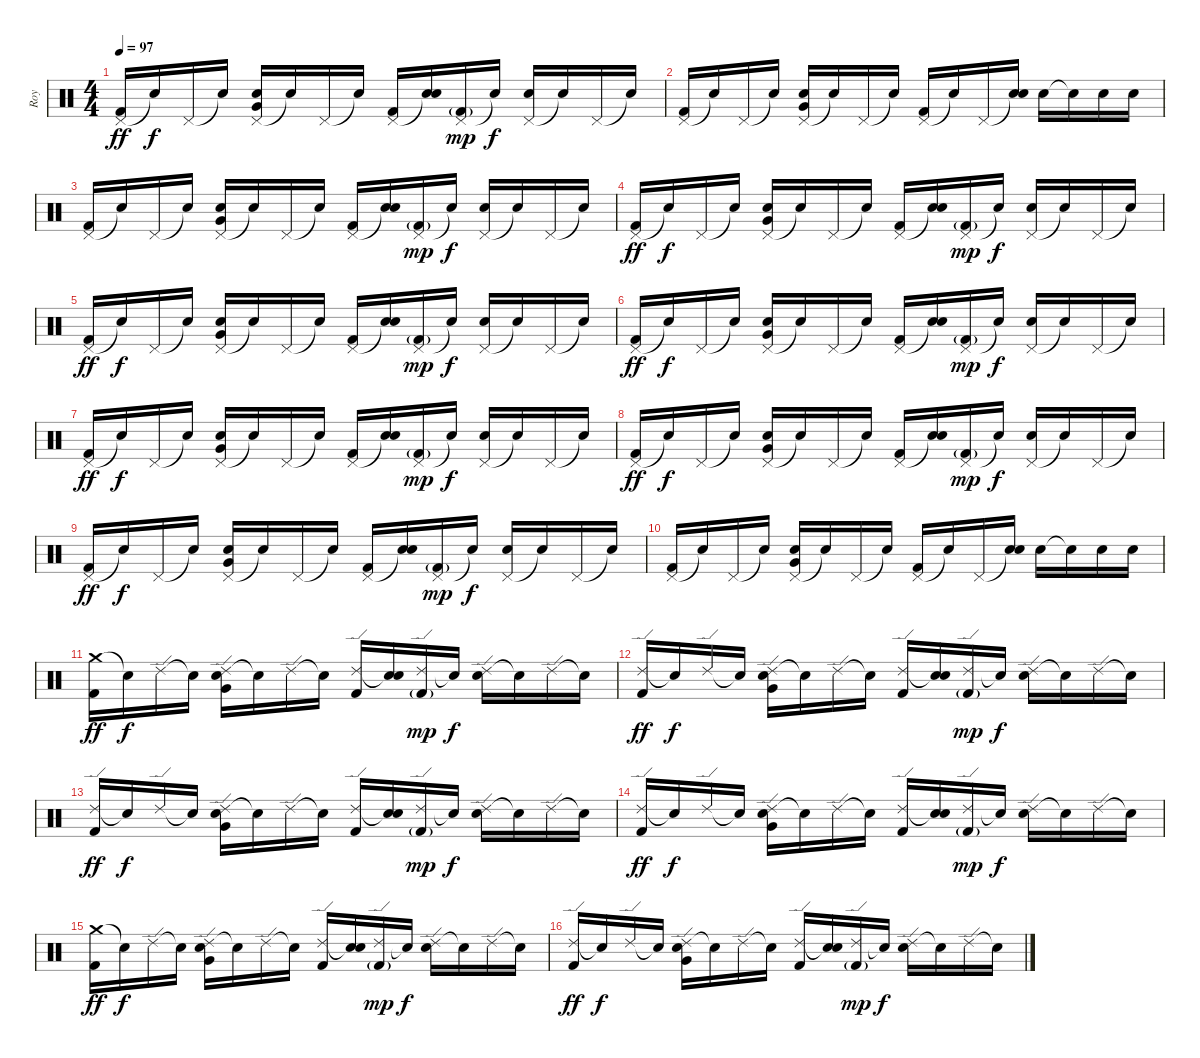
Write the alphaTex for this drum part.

\track ("Roy" "Roy") {instrument percussion}
\staff {score}
\articulation defaults
\ts (4 4)
\tempo 97
\clef neutral
\ks c
("Pedal Hi-Hat (hit)" "Kick (hit) 2").16{dy ff} "Snare (hit)"{t}.16{dy f} "Pedal Hi-Hat (hit)".16 "Snare (hit)"{t}.16 ("Pedal Hi-Hat (hit)" "Electric Snare (hit)" "Very Low Tom (hit)").16 "Snare (hit)"{t}.16 "Pedal Hi-Hat (hit)".16 "Snare (hit)"{t}.16 ("Pedal Hi-Hat (hit)" "Kick (hit) 2").16 ("Snare (hit)"{t} "Electric Snare (hit)").16 ("Pedal Hi-Hat (hit)" "Kick (hit) 2"{g}).16{dy mp} "Snare (hit)"{t}.16{dy f} ("Pedal Hi-Hat (hit)" "Electric Snare (hit)").16 "Snare (hit)"{t}.16 "Pedal Hi-Hat (hit)".16 "Snare (hit)"{t}.16 |
("Pedal Hi-Hat (hit)" "Kick (hit) 2").16 "Snare (hit)"{t}.16 "Pedal Hi-Hat (hit)".16 "Snare (hit)"{t}.16 ("Pedal Hi-Hat (hit)" "Electric Snare (hit)" "Very Low Tom (hit)").16 "Snare (hit)"{t}.16 "Pedal Hi-Hat (hit)".16 "Snare (hit)"{t}.16 ("Pedal Hi-Hat (hit)" "Kick (hit) 2").16 "Snare (hit)"{t}.16 "Pedal Hi-Hat (hit)".16 ("Snare (hit)"{t} "Electric Snare (hit)").16 "Electric Snare (hit)".16 "Snare (hit)"{t}.16 "Electric Snare (hit)".16 "Electric Snare (hit)".16 |
("Pedal Hi-Hat (hit)" "Kick (hit) 2").16 "Snare (hit)"{t}.16 "Pedal Hi-Hat (hit)".16 "Snare (hit)"{t}.16 ("Pedal Hi-Hat (hit)" "Electric Snare (hit)" "Very Low Tom (hit)").16 "Snare (hit)"{t}.16 "Pedal Hi-Hat (hit)".16 "Snare (hit)"{t}.16 ("Pedal Hi-Hat (hit)" "Kick (hit) 2").16 ("Snare (hit)"{t} "Electric Snare (hit)").16 ("Pedal Hi-Hat (hit)" "Kick (hit) 2"{g}).16{dy mp} "Snare (hit)"{t}.16{dy f} ("Pedal Hi-Hat (hit)" "Electric Snare (hit)").16 "Snare (hit)"{t}.16 "Pedal Hi-Hat (hit)".16 "Snare (hit)"{t}.16 |
("Pedal Hi-Hat (hit)" "Kick (hit) 2").16{dy ff} "Snare (hit)"{t}.16{dy f} "Pedal Hi-Hat (hit)".16 "Snare (hit)"{t}.16 ("Pedal Hi-Hat (hit)" "Electric Snare (hit)" "Very Low Tom (hit)").16 "Snare (hit)"{t}.16 "Pedal Hi-Hat (hit)".16 "Snare (hit)"{t}.16 ("Pedal Hi-Hat (hit)" "Kick (hit) 2").16 ("Snare (hit)"{t} "Electric Snare (hit)").16 ("Pedal Hi-Hat (hit)" "Kick (hit) 2"{g}).16{dy mp} "Snare (hit)"{t}.16{dy f} ("Pedal Hi-Hat (hit)" "Electric Snare (hit)").16 "Snare (hit)"{t}.16 "Pedal Hi-Hat (hit)".16 "Snare (hit)"{t}.16 |
("Pedal Hi-Hat (hit)" "Kick (hit) 2").16{dy ff} "Snare (hit)"{t}.16{dy f} "Pedal Hi-Hat (hit)".16 "Snare (hit)"{t}.16 ("Pedal Hi-Hat (hit)" "Electric Snare (hit)" "Very Low Tom (hit)").16 "Snare (hit)"{t}.16 "Pedal Hi-Hat (hit)".16 "Snare (hit)"{t}.16 ("Pedal Hi-Hat (hit)" "Kick (hit) 2").16 ("Snare (hit)"{t} "Electric Snare (hit)").16 ("Pedal Hi-Hat (hit)" "Kick (hit) 2"{g}).16{dy mp} "Snare (hit)"{t}.16{dy f} ("Pedal Hi-Hat (hit)" "Electric Snare (hit)").16 "Snare (hit)"{t}.16 "Pedal Hi-Hat (hit)".16 "Snare (hit)"{t}.16 |
("Pedal Hi-Hat (hit)" "Kick (hit) 2").16{dy ff} "Snare (hit)"{t}.16{dy f} "Pedal Hi-Hat (hit)".16 "Snare (hit)"{t}.16 ("Pedal Hi-Hat (hit)" "Electric Snare (hit)" "Very Low Tom (hit)").16 "Snare (hit)"{t}.16 "Pedal Hi-Hat (hit)".16 "Snare (hit)"{t}.16 ("Pedal Hi-Hat (hit)" "Kick (hit) 2").16 ("Snare (hit)"{t} "Electric Snare (hit)").16 ("Pedal Hi-Hat (hit)" "Kick (hit) 2"{g}).16{dy mp} "Snare (hit)"{t}.16{dy f} ("Pedal Hi-Hat (hit)" "Electric Snare (hit)").16 "Snare (hit)"{t}.16 "Pedal Hi-Hat (hit)".16 "Snare (hit)"{t}.16 |
("Pedal Hi-Hat (hit)" "Kick (hit) 2").16{dy ff} "Snare (hit)"{t}.16{dy f} "Pedal Hi-Hat (hit)".16 "Snare (hit)"{t}.16 ("Pedal Hi-Hat (hit)" "Electric Snare (hit)" "Very Low Tom (hit)").16 "Snare (hit)"{t}.16 "Pedal Hi-Hat (hit)".16 "Snare (hit)"{t}.16 ("Pedal Hi-Hat (hit)" "Kick (hit) 2").16 ("Snare (hit)"{t} "Electric Snare (hit)").16 ("Pedal Hi-Hat (hit)" "Kick (hit) 2"{g}).16{dy mp} "Snare (hit)"{t}.16{dy f} ("Pedal Hi-Hat (hit)" "Electric Snare (hit)").16 "Snare (hit)"{t}.16 "Pedal Hi-Hat (hit)".16 "Snare (hit)"{t}.16 |
("Pedal Hi-Hat (hit)" "Kick (hit) 2").16{dy ff} "Snare (hit)"{t}.16{dy f} "Pedal Hi-Hat (hit)".16 "Snare (hit)"{t}.16 ("Pedal Hi-Hat (hit)" "Electric Snare (hit)" "Very Low Tom (hit)").16 "Snare (hit)"{t}.16 "Pedal Hi-Hat (hit)".16 "Snare (hit)"{t}.16 ("Pedal Hi-Hat (hit)" "Kick (hit) 2").16 ("Snare (hit)"{t} "Electric Snare (hit)").16 ("Pedal Hi-Hat (hit)" "Kick (hit) 2"{g}).16{dy mp} "Snare (hit)"{t}.16{dy f} ("Pedal Hi-Hat (hit)" "Electric Snare (hit)").16 "Snare (hit)"{t}.16 "Pedal Hi-Hat (hit)".16 "Snare (hit)"{t}.16 |
("Pedal Hi-Hat (hit)" "Kick (hit) 2").16{dy ff} "Snare (hit)"{t}.16{dy f} "Pedal Hi-Hat (hit)".16 "Snare (hit)"{t}.16 ("Pedal Hi-Hat (hit)" "Electric Snare (hit)" "Very Low Tom (hit)").16 "Snare (hit)"{t}.16 "Pedal Hi-Hat (hit)".16 "Snare (hit)"{t}.16 ("Pedal Hi-Hat (hit)" "Kick (hit) 2").16 ("Snare (hit)"{t} "Electric Snare (hit)").16 ("Pedal Hi-Hat (hit)" "Kick (hit) 2"{g}).16{dy mp} "Snare (hit)"{t}.16{dy f} ("Pedal Hi-Hat (hit)" "Electric Snare (hit)").16 "Snare (hit)"{t}.16 "Pedal Hi-Hat (hit)".16 "Snare (hit)"{t}.16 |
("Pedal Hi-Hat (hit)" "Kick (hit) 2").16 "Snare (hit)"{t}.16 "Pedal Hi-Hat (hit)".16 "Snare (hit)"{t}.16 ("Pedal Hi-Hat (hit)" "Electric Snare (hit)" "Very Low Tom (hit)").16 "Snare (hit)"{t}.16 "Pedal Hi-Hat (hit)".16 "Snare (hit)"{t}.16 ("Pedal Hi-Hat (hit)" "Kick (hit) 2").16 "Snare (hit)"{t}.16 "Pedal Hi-Hat (hit)".16 ("Snare (hit)"{t} "Electric Snare (hit)").16 "Electric Snare (hit)".16 "Snare (hit)"{t}.16 "Electric Snare (hit)".16 "Electric Snare (hit)".16 |
("Crash medium (hit)" "Kick (hit) 2").16{dy ff} "Snare (hit)"{t}.16{dy f} "Ride (edge) 2".16 "Snare (hit)"{t}.16 ("Ride (edge) 2" "Electric Snare (hit)" "Very Low Tom (hit)").16 "Snare (hit)"{t}.16 "Ride (edge) 2".16 "Snare (hit)"{t}.16 ("Ride (edge) 2" "Kick (hit) 2").16 ("Snare (hit)"{t} "Electric Snare (hit)").16 ("Ride (edge) 2" "Kick (hit) 2"{g}).16{dy mp} "Snare (hit)"{t}.16{dy f} ("Ride (edge) 2" "Electric Snare (hit)").16 "Snare (hit)"{t}.16 "Ride (edge) 2".16 "Snare (hit)"{t}.16 |
("Ride (edge) 2" "Kick (hit) 2").16{dy ff} "Snare (hit)"{t}.16{dy f} "Ride (edge) 2".16 "Snare (hit)"{t}.16 ("Ride (edge) 2" "Electric Snare (hit)" "Very Low Tom (hit)").16 "Snare (hit)"{t}.16 "Ride (edge) 2".16 "Snare (hit)"{t}.16 ("Ride (edge) 2" "Kick (hit) 2").16 ("Snare (hit)"{t} "Electric Snare (hit)").16 ("Ride (edge) 2" "Kick (hit) 2"{g}).16{dy mp} "Snare (hit)"{t}.16{dy f} ("Ride (edge) 2" "Electric Snare (hit)").16 "Snare (hit)"{t}.16 "Ride (edge) 2".16 "Snare (hit)"{t}.16 |
("Ride (edge) 2" "Kick (hit) 2").16{dy ff} "Snare (hit)"{t}.16{dy f} "Ride (edge) 2".16 "Snare (hit)"{t}.16 ("Ride (edge) 2" "Electric Snare (hit)" "Very Low Tom (hit)").16 "Snare (hit)"{t}.16 "Ride (edge) 2".16 "Snare (hit)"{t}.16 ("Ride (edge) 2" "Kick (hit) 2").16 ("Snare (hit)"{t} "Electric Snare (hit)").16 ("Ride (edge) 2" "Kick (hit) 2"{g}).16{dy mp} "Snare (hit)"{t}.16{dy f} ("Ride (edge) 2" "Electric Snare (hit)").16 "Snare (hit)"{t}.16 "Ride (edge) 2".16 "Snare (hit)"{t}.16 |
("Ride (edge) 2" "Kick (hit) 2").16{dy ff} "Snare (hit)"{t}.16{dy f} "Ride (edge) 2".16 "Snare (hit)"{t}.16 ("Ride (edge) 2" "Electric Snare (hit)" "Very Low Tom (hit)").16 "Snare (hit)"{t}.16 "Ride (edge) 2".16 "Snare (hit)"{t}.16 ("Ride (edge) 2" "Kick (hit) 2").16 ("Snare (hit)"{t} "Electric Snare (hit)").16 ("Ride (edge) 2" "Kick (hit) 2"{g}).16{dy mp} "Snare (hit)"{t}.16{dy f} ("Ride (edge) 2" "Electric Snare (hit)").16 "Snare (hit)"{t}.16 "Ride (edge) 2".16 "Snare (hit)"{t}.16 |
("Crash medium (hit)" "Kick (hit) 2").16{dy ff} "Snare (hit)"{t}.16{dy f} "Ride (edge) 2".16 "Snare (hit)"{t}.16 ("Ride (edge) 2" "Electric Snare (hit)" "Very Low Tom (hit)").16 "Snare (hit)"{t}.16 "Ride (edge) 2".16 "Snare (hit)"{t}.16 ("Ride (edge) 2" "Kick (hit) 2").16 ("Snare (hit)"{t} "Electric Snare (hit)").16 ("Ride (edge) 2" "Kick (hit) 2"{g}).16{dy mp} "Snare (hit)"{t}.16{dy f} ("Ride (edge) 2" "Electric Snare (hit)").16 "Snare (hit)"{t}.16 "Ride (edge) 2".16 "Snare (hit)"{t}.16 |
("Ride (edge) 2" "Kick (hit) 2").16{dy ff} "Snare (hit)"{t}.16{dy f} "Ride (edge) 2".16 "Snare (hit)"{t}.16 ("Ride (edge) 2" "Electric Snare (hit)" "Very Low Tom (hit)").16 "Snare (hit)"{t}.16 "Ride (edge) 2".16 "Snare (hit)"{t}.16 ("Ride (edge) 2" "Kick (hit) 2").16 ("Snare (hit)"{t} "Electric Snare (hit)").16 ("Ride (edge) 2" "Kick (hit) 2"{g}).16{dy mp} "Snare (hit)"{t}.16{dy f} ("Ride (edge) 2" "Electric Snare (hit)").16 "Snare (hit)"{t}.16 "Ride (edge) 2".16 "Snare (hit)"{t}.16
